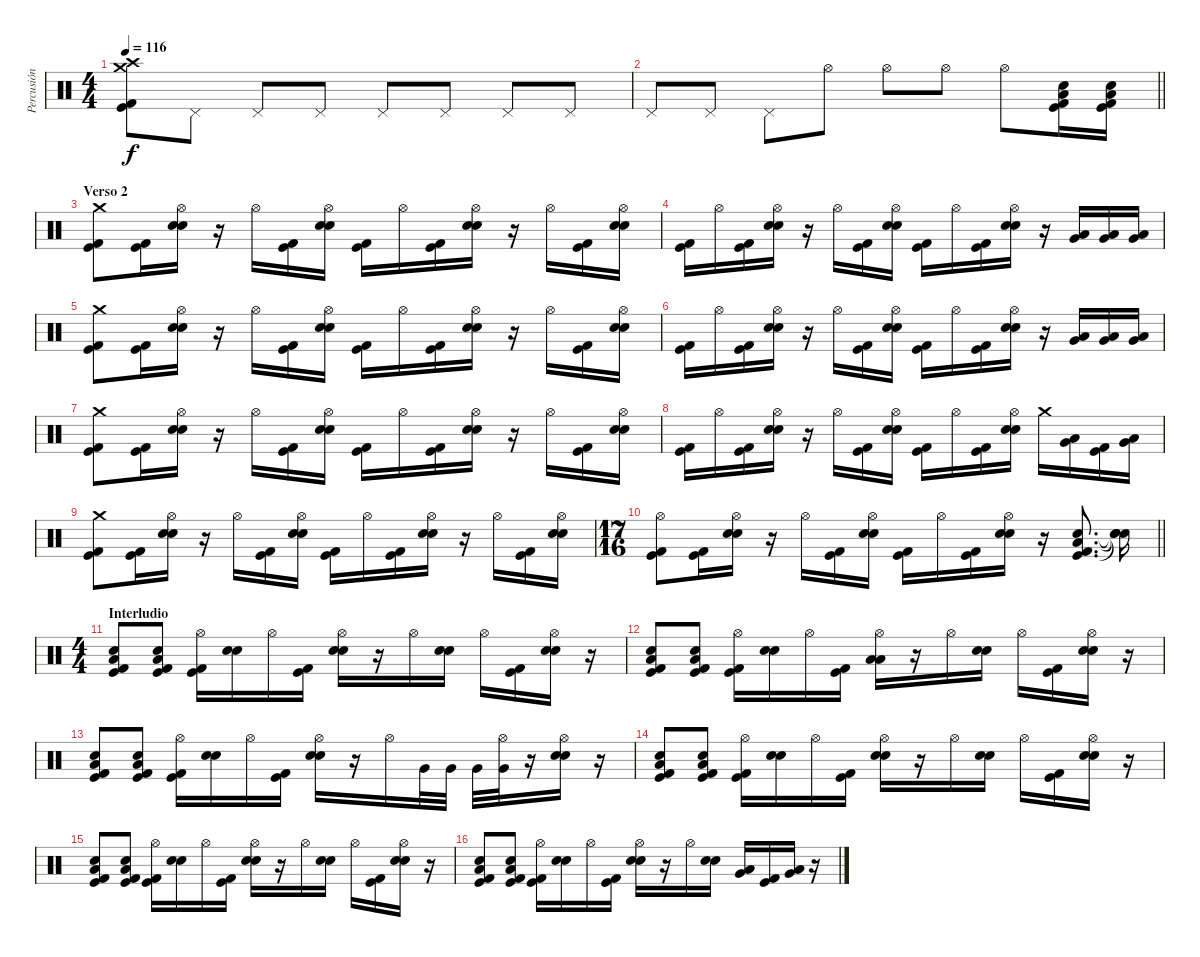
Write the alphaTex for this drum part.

\track ("Percusión" "Percusión") {instrument percussion}
\staff {score}
\articulation defaults
\ts (4 4)
\tempo 116
\clef neutral
\ks c
("Crash medium (hit)" "Crash high (hit)" "Kick (hit)" "Kick (hit) 2").8{dy f} "Pedal Hi-Hat (hit)".8 "Pedal Hi-Hat (hit)".8 "Pedal Hi-Hat (hit)".8 "Pedal Hi-Hat (hit)".8 "Pedal Hi-Hat (hit)".8 "Pedal Hi-Hat (hit)".8 "Pedal Hi-Hat (hit)".8 |
\barLineRight lightlight "Pedal Hi-Hat (hit)".8 "Pedal Hi-Hat (hit)".8 "Pedal Hi-Hat (hit)".8 "Hi-Hat (open)".8 "Hi-Hat (open)".8 "Hi-Hat (open)".8 "Hi-Hat (open)".8
("Low Floor Tom (hit)" "Electric Snare (hit)" "Kick (hit)" "Kick (hit) 2").16 ("Low Floor Tom (hit)" "Electric Snare (hit)" "Kick (hit)" "Kick (hit) 2").16 |
\section ("" "Verso 2")
("Crash medium (hit)" "Kick (hit)" "Kick (hit) 2").8 ("Kick (hit)" "Kick (hit) 2").16 ("Hi-Hat (open)" "Electric Snare (hit)" "Snare (hit) 2").16 r.16 "Hi-Hat (open)".16 ("Kick (hit)" "Kick (hit) 2").16 ("Hi-Hat (open)" "Electric Snare (hit)" "Snare (hit) 2").16 ("Kick (hit)" "Kick (hit) 2").16 "Hi-Hat (open)".16 ("Kick (hit)" "Kick (hit) 2").16 ("Hi-Hat (open)" "Electric Snare (hit)" "Snare (hit) 2").16 r.16 "Hi-Hat (open)".16 ("Kick (hit)" "Kick (hit) 2").16 ("Hi-Hat (open)" "Electric Snare (hit)" "Snare (hit) 2").16 |
("Kick (hit)" "Kick (hit) 2").16 "Hi-Hat (open)".16 ("Kick (hit)" "Kick (hit) 2").16 ("Hi-Hat (open)" "Electric Snare (hit)" "Snare (hit) 2").16 r.16 "Hi-Hat (open)".16 ("Kick (hit)" "Kick (hit) 2").16 ("Hi-Hat (open)" "Electric Snare (hit)" "Snare (hit) 2").16 ("Kick (hit)" "Kick (hit) 2").16 "Hi-Hat (open)".16 ("Kick (hit)" "Kick (hit) 2").16 ("Hi-Hat (open)" "Electric Snare (hit)" "Snare (hit) 2").16 r.16 ("Low Tom (hit)" "Very Low Tom (hit)").16 ("Low Tom (hit)" "Very Low Tom (hit)").16 ("Low Tom (hit)" "Very Low Tom (hit)").16 |
("Crash medium (hit)" "Kick (hit)" "Kick (hit) 2").8 ("Kick (hit)" "Kick (hit) 2").16 ("Hi-Hat (open)" "Electric Snare (hit)" "Snare (hit) 2").16 r.16 "Hi-Hat (open)".16 ("Kick (hit)" "Kick (hit) 2").16 ("Hi-Hat (open)" "Electric Snare (hit)" "Snare (hit) 2").16 ("Kick (hit)" "Kick (hit) 2").16 "Hi-Hat (open)".16 ("Kick (hit)" "Kick (hit) 2").16 ("Hi-Hat (open)" "Electric Snare (hit)" "Snare (hit) 2").16 r.16 "Hi-Hat (open)".16 ("Kick (hit)" "Kick (hit) 2").16 ("Hi-Hat (open)" "Electric Snare (hit)" "Snare (hit) 2").16 |
("Kick (hit)" "Kick (hit) 2").16 "Hi-Hat (open)".16 ("Kick (hit)" "Kick (hit) 2").16 ("Hi-Hat (open)" "Electric Snare (hit)" "Snare (hit) 2").16 r.16 "Hi-Hat (open)".16 ("Kick (hit)" "Kick (hit) 2").16 ("Hi-Hat (open)" "Electric Snare (hit)" "Snare (hit) 2").16 ("Kick (hit)" "Kick (hit) 2").16 "Hi-Hat (open)".16 ("Kick (hit)" "Kick (hit) 2").16 ("Hi-Hat (open)" "Electric Snare (hit)" "Snare (hit) 2").16 r.16 ("Low Tom (hit)" "Very Low Tom (hit)").16 ("Low Tom (hit)" "Very Low Tom (hit)").16 ("Low Tom (hit)" "Very Low Tom (hit)").16 |
("Crash medium (hit)" "Kick (hit)" "Kick (hit) 2").8 ("Kick (hit)" "Kick (hit) 2").16 ("Hi-Hat (open)" "Electric Snare (hit)" "Snare (hit) 2").16 r.16 "Hi-Hat (open)".16 ("Kick (hit)" "Kick (hit) 2").16 ("Hi-Hat (open)" "Electric Snare (hit)" "Snare (hit) 2").16 ("Kick (hit)" "Kick (hit) 2").16 "Hi-Hat (open)".16 ("Kick (hit)" "Kick (hit) 2").16 ("Hi-Hat (open)" "Electric Snare (hit)" "Snare (hit) 2").16 r.16 "Hi-Hat (open)".16 ("Kick (hit)" "Kick (hit) 2").16 ("Hi-Hat (open)" "Electric Snare (hit)" "Snare (hit) 2").16 |
("Kick (hit)" "Kick (hit) 2").16 "Hi-Hat (open)".16 ("Kick (hit)" "Kick (hit) 2").16 ("Hi-Hat (open)" "Electric Snare (hit)" "Snare (hit) 2").16 r.16 "Hi-Hat (open)".16 ("Kick (hit)" "Kick (hit) 2").16 ("Hi-Hat (open)" "Electric Snare (hit)" "Snare (hit) 2").16 ("Kick (hit)" "Kick (hit) 2").16 "Hi-Hat (open)".16 ("Kick (hit)" "Kick (hit) 2").16 ("Hi-Hat (open)" "Electric Snare (hit)" "Snare (hit) 2").16 "Crash medium (hit)".16 ("Low Tom (hit)" "Very Low Tom (hit)").16 ("Kick (hit)" "Kick (hit) 2").16 ("Low Tom (hit)" "Very Low Tom (hit)").16 |
("Crash medium (hit)" "Kick (hit)" "Kick (hit) 2").8 ("Kick (hit)" "Kick (hit) 2").16 ("Hi-Hat (open)" "Electric Snare (hit)" "Snare (hit) 2").16 r.16 "Hi-Hat (open)".16 ("Kick (hit)" "Kick (hit) 2").16 ("Hi-Hat (open)" "Electric Snare (hit)" "Snare (hit) 2").16 ("Kick (hit)" "Kick (hit) 2").16 "Hi-Hat (open)".16 ("Kick (hit)" "Kick (hit) 2").16 ("Hi-Hat (open)" "Electric Snare (hit)" "Snare (hit) 2").16 r.16 "Hi-Hat (open)".16 ("Kick (hit)" "Kick (hit) 2").16 ("Hi-Hat (open)" "Electric Snare (hit)" "Snare (hit) 2").16 |
\ts (17 16)
\barLineRight lightlight
("Hi-Hat (open)" "Kick (hit)" "Kick (hit) 2").8 ("Kick (hit)" "Kick (hit) 2").16 ("Hi-Hat (open)" "Electric Snare (hit)" "Snare (hit) 2").16 r.16 "Hi-Hat (open)".16 ("Kick (hit)" "Kick (hit) 2").16 ("Hi-Hat (open)" "Electric Snare (hit)" "Snare (hit) 2").16 ("Kick (hit)" "Kick (hit) 2").16 "Hi-Hat (open)".16 ("Kick (hit)" "Kick (hit) 2").16 ("Hi-Hat (open)" "Electric Snare (hit)" "Snare (hit) 2").16 r.16 ("Low Floor Tom (hit)" "Electric Snare (hit)" "Kick (hit)" "Kick (hit) 2").8{d} ("Snare (hit)"{t} "Snare (hit)"{t} "Snare (hit)"{t}).16 |
\ts (4 4)
\section ("" "Interludio")
("Low Floor Tom (hit)" "Electric Snare (hit)" "Kick (hit)" "Kick (hit) 2").8 ("Low Floor Tom (hit)" "Electric Snare (hit)" "Kick (hit)" "Kick (hit) 2").8 ("Hi-Hat (open)" "Kick (hit)" "Kick (hit) 2").16 ("Electric Snare (hit)" "Snare (hit) 2").16 "Hi-Hat (open)".16 ("Kick (hit)" "Kick (hit) 2").16 ("Hi-Hat (open)" "Electric Snare (hit)" "Snare (hit) 2").16 r.16 "Hi-Hat (open)".16 ("Electric Snare (hit)" "Snare (hit) 2").16 "Hi-Hat (open)".16 ("Kick (hit)" "Kick (hit) 2").16 ("Hi-Hat (open)" "Electric Snare (hit)" "Snare (hit) 2").16 r.16 |
("Low Floor Tom (hit)" "Electric Snare (hit)" "Kick (hit)" "Kick (hit) 2").8 ("Low Floor Tom (hit)" "Electric Snare (hit)" "Kick (hit)" "Kick (hit) 2").8 ("Hi-Hat (open)" "Kick (hit)" "Kick (hit) 2").16 ("Electric Snare (hit)" "Snare (hit) 2").16 "Hi-Hat (open)".16 ("Kick (hit)" "Kick (hit) 2").16 ("Hi-Hat (open)" "Low Floor Tom (hit)" "Low Floor Tom (hit)").16 r.16 "Hi-Hat (open)".16 ("Electric Snare (hit)" "Snare (hit) 2").16 "Hi-Hat (open)".16 ("Kick (hit)" "Kick (hit) 2").16 ("Hi-Hat (open)" "Electric Snare (hit)" "Snare (hit) 2").16 r.16 |
("Low Floor Tom (hit)" "Electric Snare (hit)" "Kick (hit)" "Kick (hit) 2").8 ("Low Floor Tom (hit)" "Electric Snare (hit)" "Kick (hit)" "Kick (hit) 2").8 ("Hi-Hat (open)" "Kick (hit)" "Kick (hit) 2").16 ("Electric Snare (hit)" "Snare (hit) 2").16 "Hi-Hat (open)".16 ("Kick (hit)" "Kick (hit) 2").16 ("Hi-Hat (open)" "Electric Snare (hit)" "Snare (hit) 2").16 r.16 "Hi-Hat (open)".16 "Very Low Tom (hit)".32 "Very Low Tom (hit)".32 "Very Low Tom (hit)".32 ("Hi-Hat (open)" "Very Low Tom (hit)").32 r.16 ("Hi-Hat (open)" "Snare (hit) 2" "Electric Snare (hit)").16 r.16 |
("Low Floor Tom (hit)" "Electric Snare (hit)" "Kick (hit)" "Kick (hit) 2").8 ("Low Floor Tom (hit)" "Electric Snare (hit)" "Kick (hit)" "Kick (hit) 2").8 ("Hi-Hat (open)" "Kick (hit)" "Kick (hit) 2").16 ("Electric Snare (hit)" "Snare (hit) 2").16 "Hi-Hat (open)".16 ("Kick (hit)" "Kick (hit) 2").16 ("Hi-Hat (open)" "Electric Snare (hit)" "Snare (hit) 2").16 r.16 "Hi-Hat (open)".16 ("Electric Snare (hit)" "Snare (hit) 2").16 "Hi-Hat (open)".16 ("Kick (hit)" "Kick (hit) 2").16 ("Hi-Hat (open)" "Electric Snare (hit)" "Snare (hit) 2").16 r.16 |
("Low Floor Tom (hit)" "Electric Snare (hit)" "Kick (hit)" "Kick (hit) 2").8 ("Low Floor Tom (hit)" "Electric Snare (hit)" "Kick (hit)" "Kick (hit) 2").8 ("Hi-Hat (open)" "Kick (hit)" "Kick (hit) 2").16 ("Electric Snare (hit)" "Snare (hit) 2").16 "Hi-Hat (open)".16 ("Kick (hit)" "Kick (hit) 2").16 ("Hi-Hat (open)" "Electric Snare (hit)" "Snare (hit) 2").16 r.16 "Hi-Hat (open)".16 ("Electric Snare (hit)" "Snare (hit) 2").16 "Hi-Hat (open)".16 ("Kick (hit)" "Kick (hit) 2").16 ("Hi-Hat (open)" "Electric Snare (hit)" "Snare (hit) 2").16 r.16 |
("Low Floor Tom (hit)" "Electric Snare (hit)" "Kick (hit)" "Kick (hit) 2").8 ("Low Floor Tom (hit)" "Electric Snare (hit)" "Kick (hit)" "Kick (hit) 2").8 ("Hi-Hat (open)" "Kick (hit)" "Kick (hit) 2").16 ("Electric Snare (hit)" "Snare (hit) 2").16 "Hi-Hat (open)".16 ("Kick (hit)" "Kick (hit) 2").16 ("Hi-Hat (open)" "Electric Snare (hit)" "Snare (hit) 2").16 r.16 "Hi-Hat (open)".16 ("Electric Snare (hit)" "Snare (hit) 2").16 ("Very Low Tom (hit)" "Low Tom (hit)").16 ("Kick (hit)" "Kick (hit) 2").16 ("Very Low Tom (hit)" "Low Tom (hit)").16 r.16
